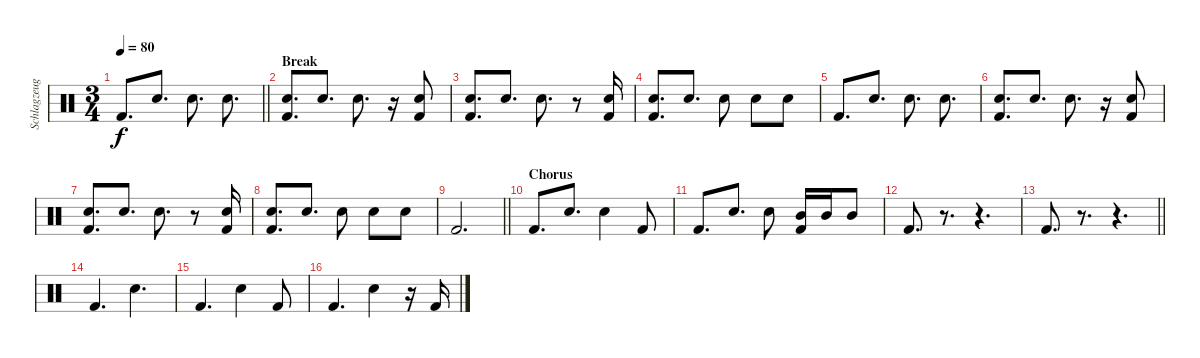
\track ("Schlagzeug" "Schlagzeug") {instrument percussion}
\staff {score}
\articulation defaults
\ts (3 4)
\tempo 80
\clef neutral
\barLineRight lightlight
\ks c "Kick (hit) 2".8{d dy f} "Snare (hit) 2".8{d} "Snare (hit) 2".8{d} "Snare (hit) 2".8{d}
|
\section ("" "Break")
("Snare (hit) 2" "Kick (hit) 2").8{d} "Snare (hit) 2".8{d} "Snare (hit) 2".8{d} r.16 ("Snare (hit) 2" "Kick (hit) 2").8 |
("Snare (hit) 2" "Kick (hit) 2").8{d} "Snare (hit) 2".8{d} "Snare (hit) 2".8{d} r.8 ("Snare (hit) 2" "Kick (hit) 2").16 |
("Snare (hit) 2" "Kick (hit) 2").8{d} "Snare (hit) 2".8{d} "Snare (hit) 2".8 "Snare (hit) 2".8 "Snare (hit) 2".8 |
"Kick (hit) 2".8{d} "Snare (hit) 2".8{d} "Snare (hit) 2".8{d} "Snare (hit) 2".8{d} |
("Snare (hit) 2" "Kick (hit) 2").8{d} "Snare (hit) 2".8{d} "Snare (hit) 2".8{d} r.16 ("Snare (hit) 2" "Kick (hit) 2").8 |
("Snare (hit) 2" "Kick (hit) 2").8{d} "Snare (hit) 2".8{d} "Snare (hit) 2".8{d} r.8 ("Snare (hit) 2" "Kick (hit) 2").16 |
("Snare (hit) 2" "Kick (hit) 2").8{d} "Snare (hit) 2".8{d} "Snare (hit) 2".8 "Snare (hit) 2".8 "Snare (hit) 2".8 |
\barLineRight lightlight "Kick (hit) 2".2{d}
|
\section ("" "Chorus")
"Kick (hit) 2".8{d} "Snare (hit) 2".8{d} "Snare (hit) 2".4 "Kick (hit) 2".8 |
"Kick (hit) 2".8{d} "Snare (hit) 2".8{d} "Snare (hit) 2".8 ("Mid Tom (hit)" "Kick (hit) 2").16 "Mid Tom (hit)".16 "Mid Tom (hit)".8 |
"Kick (hit) 2".8{d} r.8{d} r.4{d} |
\barLineRight lightlight "Kick (hit) 2".8{d}
r.8{d} r.4{d} |
\section ("" "")
"Kick (hit) 2".4{d} "Snare (hit) 2".4{d} |
"Kick (hit) 2".4{d} "Snare (hit) 2".4 "Kick (hit) 2".8 |
"Kick (hit) 2".4{d} "Snare (hit) 2".4 r.16 "Kick (hit) 2".16
